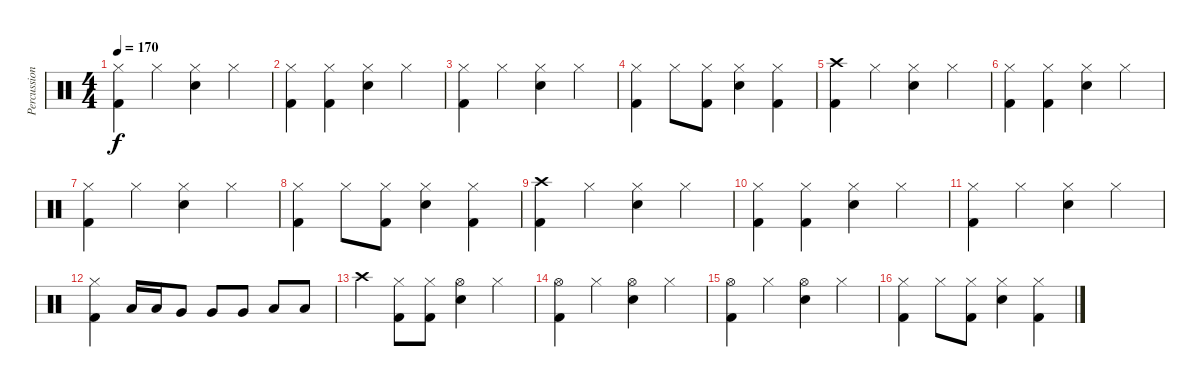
\track ("Percussion" "Percussion") {instrument percussion}
\staff {score}
\articulation defaults
\ts (4 4)
\tempo 170
\clef neutral
\ks c
("Hi-Hat (closed)" "Kick (hit) 2").4{dy f} "Hi-Hat (closed)".4 ("Hi-Hat (closed)" "Snare (hit) 2").4 "Hi-Hat (closed)".4 |
("Hi-Hat (closed)" "Kick (hit) 2").4 ("Hi-Hat (closed)" "Kick (hit) 2").4 ("Hi-Hat (closed)" "Snare (hit) 2").4 "Hi-Hat (closed)".4 |
("Hi-Hat (closed)" "Kick (hit) 2").4 "Hi-Hat (closed)".4 ("Hi-Hat (closed)" "Snare (hit) 2").4 "Hi-Hat (closed)".4 |
("Hi-Hat (closed)" "Kick (hit) 2").4 "Hi-Hat (closed)".8 ("Hi-Hat (closed)" "Kick (hit) 2").8 ("Hi-Hat (closed)" "Snare (hit) 2").4 ("Hi-Hat (closed)" "Kick (hit) 2").4 |
("Crash high (hit)" "Kick (hit) 2").4 "Hi-Hat (closed)".4 ("Hi-Hat (closed)" "Snare (hit) 2").4 "Hi-Hat (closed)".4 |
("Hi-Hat (closed)" "Kick (hit) 2").4 ("Hi-Hat (closed)" "Kick (hit) 2").4 ("Hi-Hat (closed)" "Snare (hit) 2").4 "Hi-Hat (closed)".4 |
("Hi-Hat (closed)" "Kick (hit) 2").4 "Hi-Hat (closed)".4 ("Hi-Hat (closed)" "Snare (hit) 2").4 "Hi-Hat (closed)".4 |
("Hi-Hat (closed)" "Kick (hit) 2").4 "Hi-Hat (closed)".8 ("Hi-Hat (closed)" "Kick (hit) 2").8 ("Hi-Hat (closed)" "Snare (hit) 2").4 ("Hi-Hat (closed)" "Kick (hit) 2").4 |
("Crash high (hit)" "Kick (hit) 2").4 "Hi-Hat (closed)".4 ("Hi-Hat (closed)" "Snare (hit) 2").4 "Hi-Hat (closed)".4 |
("Hi-Hat (closed)" "Kick (hit) 2").4 ("Hi-Hat (closed)" "Kick (hit) 2").4 ("Hi-Hat (closed)" "Snare (hit) 2").4 "Hi-Hat (closed)".4 |
("Hi-Hat (closed)" "Kick (hit) 2").4 "Hi-Hat (closed)".4 ("Hi-Hat (closed)" "Snare (hit) 2").4 "Hi-Hat (closed)".4 |
("Hi-Hat (closed)" "Kick (hit) 2").4 "Low Tom (hit)".16 "Low Tom (hit)".16 "Very Low Tom (hit)".8 "Very Low Tom (hit)".8 "Very Low Tom (hit)".8 "Low Tom (hit)".8 "Low Tom (hit)".8 |
"Crash high (hit)".4 ("Hi-Hat (closed)" "Kick (hit) 2").8 ("Hi-Hat (closed)" "Kick (hit) 2").8 ("Hi-Hat (open)" "Snare (hit) 2").4 "Hi-Hat (closed)".4 |
("Hi-Hat (open)" "Kick (hit) 2").4 "Hi-Hat (closed)".4 ("Hi-Hat (open)" "Snare (hit) 2").4 "Hi-Hat (closed)".4 |
("Hi-Hat (open)" "Kick (hit) 2").4 "Hi-Hat (closed)".4 ("Hi-Hat (open)" "Snare (hit) 2").4 "Hi-Hat (closed)".4 |
("Hi-Hat (closed)" "Kick (hit) 2").4 "Hi-Hat (closed)".8 ("Hi-Hat (closed)" "Kick (hit) 2").8 ("Hi-Hat (closed)" "Snare (hit) 2").4 ("Hi-Hat (closed)" "Kick (hit) 2").4
